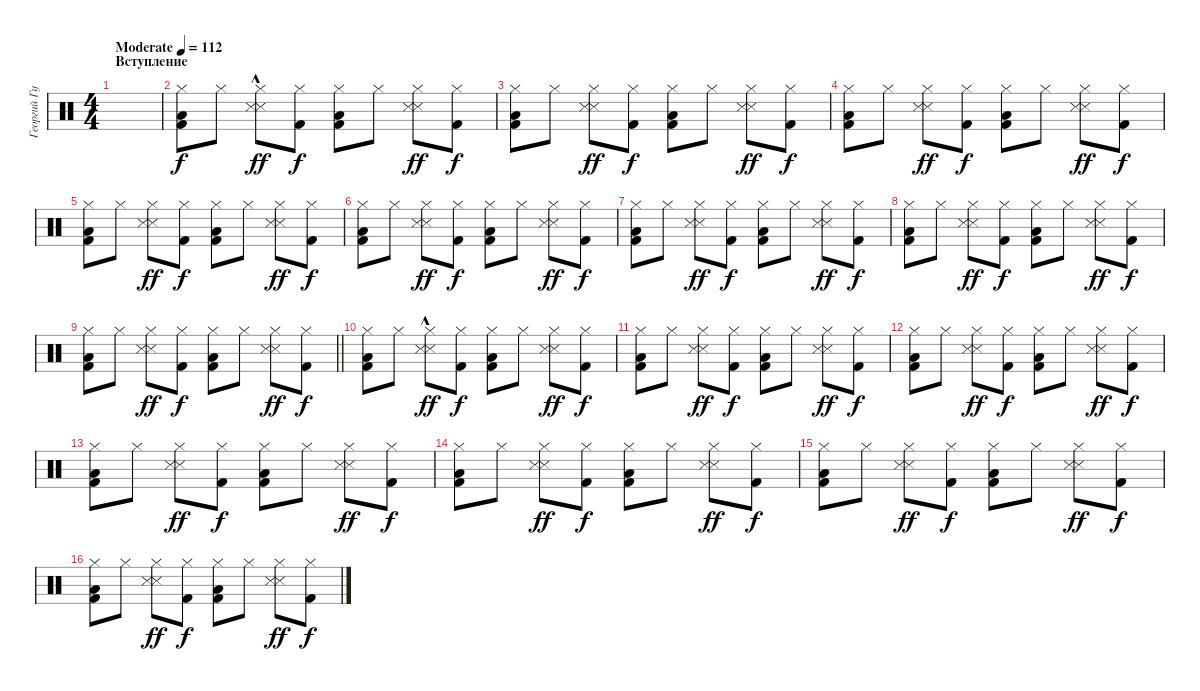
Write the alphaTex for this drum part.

\track ("Георгий Гурьянов" "Георгий Гу") {instrument percussion}
\staff {score}
\articulation defaults
\ts (4 4)
\section ("" "Вступление")
\tempo (112 "Moderate")
\clef neutral
\ks c
|
("Hi-Hat (closed)" "Low Tom (hit)" "Kick (hit) 2").8 "Hi-Hat (closed)".8 ("Hi-Hat (closed)" "Snare (side stick) 3" "Metronome (hit)"{hac}).8{dy ff} ("Hi-Hat (closed)" "Kick (hit) 2").8{dy f} ("Hi-Hat (closed)" "Low Tom (hit)" "Kick (hit) 2").8 "Hi-Hat (closed)".8 ("Hi-Hat (closed)" "Snare (side stick) 3" "Metronome (hit)").8{dy ff} ("Hi-Hat (closed)" "Kick (hit) 2").8{dy f} |
("Hi-Hat (closed)" "Low Tom (hit)" "Kick (hit) 2").8 "Hi-Hat (closed)".8 ("Hi-Hat (closed)" "Snare (side stick) 3" "Metronome (hit)").8{dy ff} ("Hi-Hat (closed)" "Kick (hit) 2").8{dy f} ("Hi-Hat (closed)" "Low Tom (hit)" "Kick (hit) 2").8 "Hi-Hat (closed)".8 ("Hi-Hat (closed)" "Snare (side stick) 3" "Metronome (hit)").8{dy ff} ("Hi-Hat (closed)" "Kick (hit) 2").8{dy f} |
("Hi-Hat (closed)" "Low Tom (hit)" "Kick (hit) 2").8 "Hi-Hat (closed)".8 ("Hi-Hat (closed)" "Snare (side stick) 3" "Metronome (hit)").8{dy ff} ("Hi-Hat (closed)" "Kick (hit) 2").8{dy f} ("Hi-Hat (closed)" "Low Tom (hit)" "Kick (hit) 2").8 "Hi-Hat (closed)".8 ("Hi-Hat (closed)" "Snare (side stick) 3" "Metronome (hit)").8{dy ff} ("Hi-Hat (closed)" "Kick (hit) 2").8{dy f} |
("Hi-Hat (closed)" "Low Tom (hit)" "Kick (hit) 2").8 "Hi-Hat (closed)".8 ("Hi-Hat (closed)" "Snare (side stick) 3" "Metronome (hit)").8{dy ff} ("Hi-Hat (closed)" "Kick (hit) 2").8{dy f} ("Hi-Hat (closed)" "Low Tom (hit)" "Kick (hit) 2").8 "Hi-Hat (closed)".8 ("Hi-Hat (closed)" "Snare (side stick) 3" "Metronome (hit)").8{dy ff} ("Hi-Hat (closed)" "Kick (hit) 2").8{dy f} |
("Hi-Hat (closed)" "Low Tom (hit)" "Kick (hit) 2").8 "Hi-Hat (closed)".8 ("Hi-Hat (closed)" "Snare (side stick) 3" "Metronome (hit)").8{dy ff} ("Hi-Hat (closed)" "Kick (hit) 2").8{dy f} ("Hi-Hat (closed)" "Low Tom (hit)" "Kick (hit) 2").8 "Hi-Hat (closed)".8 ("Hi-Hat (closed)" "Snare (side stick) 3" "Metronome (hit)").8{dy ff} ("Hi-Hat (closed)" "Kick (hit) 2").8{dy f} |
("Hi-Hat (closed)" "Low Tom (hit)" "Kick (hit) 2").8 "Hi-Hat (closed)".8 ("Hi-Hat (closed)" "Snare (side stick) 3" "Metronome (hit)").8{dy ff} ("Hi-Hat (closed)" "Kick (hit) 2").8{dy f} ("Hi-Hat (closed)" "Low Tom (hit)" "Kick (hit) 2").8 "Hi-Hat (closed)".8 ("Hi-Hat (closed)" "Snare (side stick) 3" "Metronome (hit)").8{dy ff} ("Hi-Hat (closed)" "Kick (hit) 2").8{dy f} |
("Hi-Hat (closed)" "Low Tom (hit)" "Kick (hit) 2").8 "Hi-Hat (closed)".8 ("Hi-Hat (closed)" "Snare (side stick) 3" "Metronome (hit)").8{dy ff} ("Hi-Hat (closed)" "Kick (hit) 2").8{dy f} ("Hi-Hat (closed)" "Low Tom (hit)" "Kick (hit) 2").8 "Hi-Hat (closed)".8 ("Hi-Hat (closed)" "Snare (side stick) 3" "Metronome (hit)").8{dy ff} ("Hi-Hat (closed)" "Kick (hit) 2").8{dy f} |
\barLineRight lightlight
("Hi-Hat (closed)" "Low Tom (hit)" "Kick (hit) 2").8 "Hi-Hat (closed)".8 ("Hi-Hat (closed)" "Snare (side stick) 3" "Metronome (hit)").8{dy ff} ("Hi-Hat (closed)" "Kick (hit) 2").8{dy f} ("Hi-Hat (closed)" "Low Tom (hit)" "Kick (hit) 2").8 "Hi-Hat (closed)".8 ("Hi-Hat (closed)" "Snare (side stick) 3" "Metronome (hit)").8{dy ff} ("Hi-Hat (closed)" "Kick (hit) 2").8{dy f} |
\section ("" "")
("Hi-Hat (closed)" "Low Tom (hit)" "Kick (hit) 2").8 "Hi-Hat (closed)".8 ("Hi-Hat (closed)" "Snare (side stick) 3" "Metronome (hit)"{hac}).8{dy ff} ("Hi-Hat (closed)" "Kick (hit) 2").8{dy f} ("Hi-Hat (closed)" "Low Tom (hit)" "Kick (hit) 2").8 "Hi-Hat (closed)".8 ("Hi-Hat (closed)" "Snare (side stick) 3" "Metronome (hit)").8{dy ff} ("Hi-Hat (closed)" "Kick (hit) 2").8{dy f} |
("Hi-Hat (closed)" "Low Tom (hit)" "Kick (hit) 2").8 "Hi-Hat (closed)".8 ("Hi-Hat (closed)" "Snare (side stick) 3" "Metronome (hit)").8{dy ff} ("Hi-Hat (closed)" "Kick (hit) 2").8{dy f} ("Hi-Hat (closed)" "Low Tom (hit)" "Kick (hit) 2").8 "Hi-Hat (closed)".8 ("Hi-Hat (closed)" "Snare (side stick) 3" "Metronome (hit)").8{dy ff} ("Hi-Hat (closed)" "Kick (hit) 2").8{dy f} |
("Hi-Hat (closed)" "Low Tom (hit)" "Kick (hit) 2").8 "Hi-Hat (closed)".8 ("Hi-Hat (closed)" "Snare (side stick) 3" "Metronome (hit)").8{dy ff} ("Hi-Hat (closed)" "Kick (hit) 2").8{dy f} ("Hi-Hat (closed)" "Low Tom (hit)" "Kick (hit) 2").8 "Hi-Hat (closed)".8 ("Hi-Hat (closed)" "Snare (side stick) 3" "Metronome (hit)").8{dy ff} ("Hi-Hat (closed)" "Kick (hit) 2").8{dy f} |
("Hi-Hat (closed)" "Low Tom (hit)" "Kick (hit) 2").8 "Hi-Hat (closed)".8 ("Hi-Hat (closed)" "Snare (side stick) 3" "Metronome (hit)").8{dy ff} ("Hi-Hat (closed)" "Kick (hit) 2").8{dy f} ("Hi-Hat (closed)" "Low Tom (hit)" "Kick (hit) 2").8 "Hi-Hat (closed)".8 ("Hi-Hat (closed)" "Snare (side stick) 3" "Metronome (hit)").8{dy ff} ("Hi-Hat (closed)" "Kick (hit) 2").8{dy f} |
("Hi-Hat (closed)" "Low Tom (hit)" "Kick (hit) 2").8 "Hi-Hat (closed)".8 ("Hi-Hat (closed)" "Snare (side stick) 3" "Metronome (hit)").8{dy ff} ("Hi-Hat (closed)" "Kick (hit) 2").8{dy f} ("Hi-Hat (closed)" "Low Tom (hit)" "Kick (hit) 2").8 "Hi-Hat (closed)".8 ("Hi-Hat (closed)" "Snare (side stick) 3" "Metronome (hit)").8{dy ff} ("Hi-Hat (closed)" "Kick (hit) 2").8{dy f} |
("Hi-Hat (closed)" "Low Tom (hit)" "Kick (hit) 2").8 "Hi-Hat (closed)".8 ("Hi-Hat (closed)" "Snare (side stick) 3" "Metronome (hit)").8{dy ff} ("Hi-Hat (closed)" "Kick (hit) 2").8{dy f} ("Hi-Hat (closed)" "Low Tom (hit)" "Kick (hit) 2").8 "Hi-Hat (closed)".8 ("Hi-Hat (closed)" "Snare (side stick) 3" "Metronome (hit)").8{dy ff} ("Hi-Hat (closed)" "Kick (hit) 2").8{dy f} |
("Hi-Hat (closed)" "Low Tom (hit)" "Kick (hit) 2").8 "Hi-Hat (closed)".8 ("Hi-Hat (closed)" "Snare (side stick) 3" "Metronome (hit)").8{dy ff} ("Hi-Hat (closed)" "Kick (hit) 2").8{dy f} ("Hi-Hat (closed)" "Low Tom (hit)" "Kick (hit) 2").8 "Hi-Hat (closed)".8 ("Hi-Hat (closed)" "Snare (side stick) 3" "Metronome (hit)").8{dy ff} ("Hi-Hat (closed)" "Kick (hit) 2").8{dy f}
